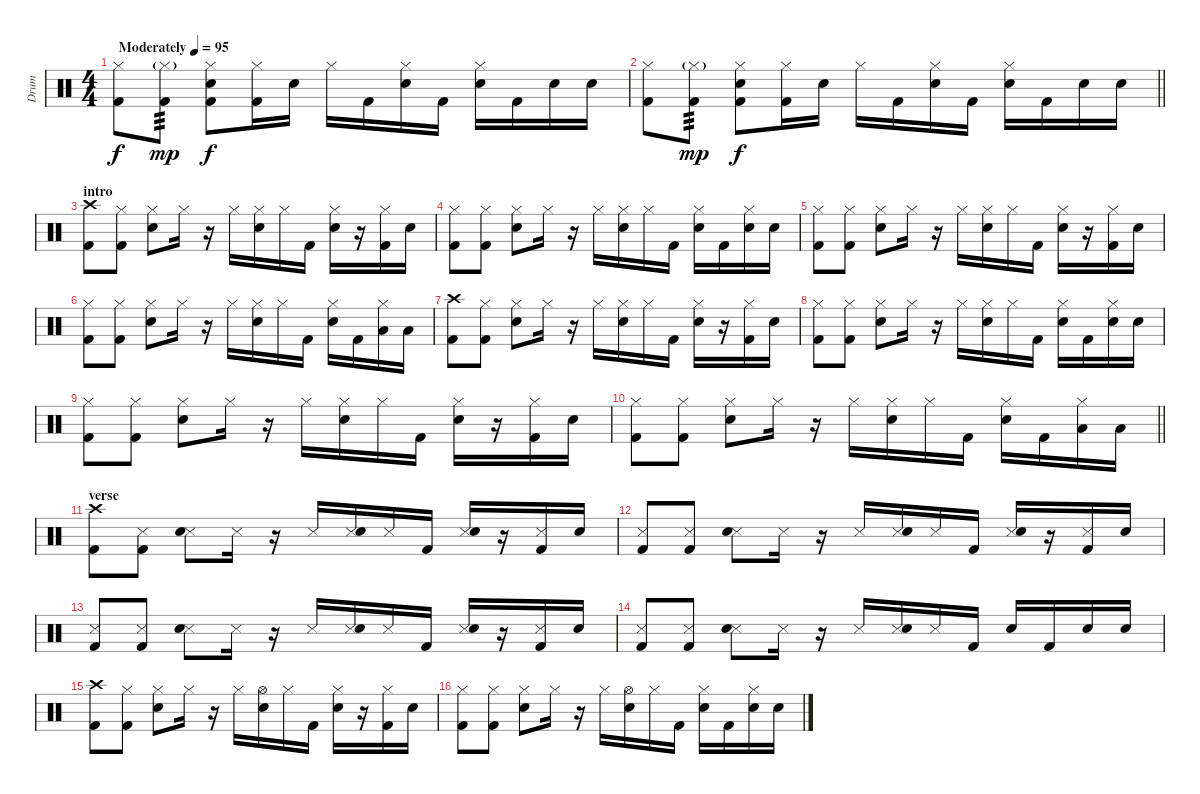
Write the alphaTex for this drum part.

\track ("Drum" "Drum") {instrument percussion}
\staff {score}
\articulation defaults
\ts (4 4)
\tempo (95 "Moderately")
\clef neutral
\ks c
("Hi-Hat (closed)" "Kick (hit) 2").8{dy f} ("Hi-Hat (closed)"{g} "Kick (hit) 2").8{tp 3 dy mp} ("Hi-Hat (closed)" "Snare (hit) 2" "Kick (hit) 2").8{dy f} ("Hi-Hat (closed)" "Kick (hit) 2").16 "Snare (hit) 2".16 "Hi-Hat (closed)".16 "Kick (hit) 2".16 ("Hi-Hat (closed)" "Snare (hit) 2").16 "Kick (hit) 2".16 ("Hi-Hat (closed)" "Snare (hit) 2").16 "Kick (hit) 2".16 "Snare (hit) 2".16 "Snare (hit) 2".16 |
\barLineRight lightlight
("Hi-Hat (closed)" "Kick (hit) 2").8 ("Hi-Hat (closed)"{g} "Kick (hit) 2").8{tp 3 dy mp} ("Hi-Hat (closed)" "Snare (hit) 2" "Kick (hit) 2").8{dy f} ("Hi-Hat (closed)" "Kick (hit) 2").16 "Snare (hit) 2".16 "Hi-Hat (closed)".16 "Kick (hit) 2".16 ("Hi-Hat (closed)" "Snare (hit) 2").16 "Kick (hit) 2".16 ("Hi-Hat (closed)" "Snare (hit) 2").16 "Kick (hit) 2".16 "Snare (hit) 2".16 "Snare (hit) 2".16 |
\section ("" "intro")
("Crash high (hit)" "Kick (hit) 2").8 ("Hi-Hat (closed)" "Kick (hit) 2").8 ("Hi-Hat (closed)" "Snare (hit) 2").8 "Hi-Hat (closed)".16 r.16 "Hi-Hat (closed)".16 ("Hi-Hat (closed)" "Snare (hit) 2").16 "Hi-Hat (closed)".16 "Kick (hit) 2".16 ("Hi-Hat (closed)" "Snare (hit) 2").16 r.16 ("Hi-Hat (closed)" "Kick (hit) 2").16 "Snare (hit) 2".16 |
("Hi-Hat (closed)" "Kick (hit) 2").8 ("Hi-Hat (closed)" "Kick (hit) 2").8 ("Hi-Hat (closed)" "Snare (hit) 2").8 "Hi-Hat (closed)".16 r.16 "Hi-Hat (closed)".16 ("Hi-Hat (closed)" "Snare (hit) 2").16 "Hi-Hat (closed)".16 "Kick (hit) 2".16 ("Hi-Hat (closed)" "Snare (hit) 2").16 "Kick (hit) 2".16 ("Hi-Hat (closed)" "Snare (hit) 2").16 "Snare (hit) 2".16 |
("Hi-Hat (closed)" "Kick (hit) 2").8 ("Hi-Hat (closed)" "Kick (hit) 2").8 ("Hi-Hat (closed)" "Snare (hit) 2").8 "Hi-Hat (closed)".16 r.16 "Hi-Hat (closed)".16 ("Hi-Hat (closed)" "Snare (hit) 2").16 "Hi-Hat (closed)".16 "Kick (hit) 2".16 ("Hi-Hat (closed)" "Snare (hit) 2").16 r.16 ("Hi-Hat (closed)" "Kick (hit) 2").16 "Snare (hit) 2".16 |
("Hi-Hat (closed)" "Kick (hit) 2").8 ("Hi-Hat (closed)" "Kick (hit) 2").8 ("Hi-Hat (closed)" "Snare (hit) 2").8 "Hi-Hat (closed)".16 r.16 "Hi-Hat (closed)".16 ("Hi-Hat (closed)" "Snare (hit) 2").16 "Hi-Hat (closed)".16 "Kick (hit) 2".16 ("Hi-Hat (closed)" "Snare (hit) 2").16 "Kick (hit) 2".16 ("Hi-Hat (closed)" "Low Tom (hit)").16 "Low Tom (hit)".16 |
("Crash high (hit)" "Kick (hit) 2").8 ("Hi-Hat (closed)" "Kick (hit) 2").8 ("Hi-Hat (closed)" "Snare (hit) 2").8 "Hi-Hat (closed)".16 r.16 "Hi-Hat (closed)".16 ("Hi-Hat (closed)" "Snare (hit) 2").16 "Hi-Hat (closed)".16 "Kick (hit) 2".16 ("Hi-Hat (closed)" "Snare (hit) 2").16 r.16 ("Hi-Hat (closed)" "Kick (hit) 2").16 "Snare (hit) 2".16 |
("Hi-Hat (closed)" "Kick (hit) 2").8 ("Hi-Hat (closed)" "Kick (hit) 2").8 ("Hi-Hat (closed)" "Snare (hit) 2").8 "Hi-Hat (closed)".16 r.16 "Hi-Hat (closed)".16 ("Hi-Hat (closed)" "Snare (hit) 2").16 "Hi-Hat (closed)".16 "Kick (hit) 2".16 ("Hi-Hat (closed)" "Snare (hit) 2").16 "Kick (hit) 2".16 ("Hi-Hat (closed)" "Snare (hit) 2").16 "Snare (hit) 2".16 |
("Hi-Hat (closed)" "Kick (hit) 2").8 ("Hi-Hat (closed)" "Kick (hit) 2").8 ("Hi-Hat (closed)" "Snare (hit) 2").8 "Hi-Hat (closed)".16 r.16 "Hi-Hat (closed)".16 ("Hi-Hat (closed)" "Snare (hit) 2").16 "Hi-Hat (closed)".16 "Kick (hit) 2".16 ("Hi-Hat (closed)" "Snare (hit) 2").16 r.16 ("Hi-Hat (closed)" "Kick (hit) 2").16 "Snare (hit) 2".16 |
\barLineRight lightlight
("Hi-Hat (closed)" "Kick (hit) 2").8 ("Hi-Hat (closed)" "Kick (hit) 2").8 ("Hi-Hat (closed)" "Snare (hit) 2").8 "Hi-Hat (closed)".16 r.16 "Hi-Hat (closed)".16 ("Hi-Hat (closed)" "Snare (hit) 2").16 "Hi-Hat (closed)".16 "Kick (hit) 2".16 ("Hi-Hat (closed)" "Snare (hit) 2").16 "Kick (hit) 2".16 ("Hi-Hat (closed)" "Low Tom (hit)").16 "Low Tom (hit)".16 |
\section ("" "verse")
("Crash high (hit)" "Kick (hit) 2").8 ("Snare (side stick) 3" "Kick (hit) 2").8 ("Snare (side stick) 3" "Snare (hit) 2").8 "Snare (side stick) 3".16 r.16 "Snare (side stick) 3".16 ("Snare (side stick) 3" "Snare (hit) 2").16 "Snare (side stick) 3".16 "Kick (hit) 2".16 ("Snare (side stick) 3" "Snare (hit) 2").16 r.16 ("Snare (side stick) 3" "Kick (hit) 2").16 "Snare (hit) 2".16 |
("Snare (side stick) 3" "Kick (hit) 2").8 ("Snare (side stick) 3" "Kick (hit) 2").8 ("Snare (side stick) 3" "Snare (hit) 2").8 "Snare (side stick) 3".16 r.16 "Snare (side stick) 3".16 ("Snare (side stick) 3" "Snare (hit) 2").16 "Snare (side stick) 3".16 "Kick (hit) 2".16 ("Snare (side stick) 3" "Snare (hit) 2").16 r.16 ("Snare (side stick) 3" "Kick (hit) 2").16 "Snare (hit) 2".16 |
("Snare (side stick) 3" "Kick (hit) 2").8 ("Snare (side stick) 3" "Kick (hit) 2").8 ("Snare (side stick) 3" "Snare (hit) 2").8 "Snare (side stick) 3".16 r.16 "Snare (side stick) 3".16 ("Snare (side stick) 3" "Snare (hit) 2").16 "Snare (side stick) 3".16 "Kick (hit) 2".16 ("Snare (side stick) 3" "Snare (hit) 2").16 r.16 ("Snare (side stick) 3" "Kick (hit) 2").16 "Snare (hit) 2".16 |
("Snare (side stick) 3" "Kick (hit) 2").8 ("Snare (side stick) 3" "Kick (hit) 2").8 ("Snare (side stick) 3" "Snare (hit) 2").8 "Snare (side stick) 3".16 r.16 "Snare (side stick) 3".16 ("Snare (side stick) 3" "Snare (hit) 2").16 "Snare (side stick) 3".16 "Kick (hit) 2".16 "Snare (hit) 2".16 "Kick (hit) 2".16 "Snare (hit) 2".16 "Snare (hit) 2".16 |
("Crash high (hit)" "Kick (hit) 2").8 ("Hi-Hat (closed)" "Kick (hit) 2").8 ("Hi-Hat (closed)" "Snare (hit) 2").8 "Hi-Hat (closed)".16 r.16 "Hi-Hat (closed)".16 ("Hi-Hat (open)" "Snare (hit) 2").16 "Hi-Hat (closed)".16 "Kick (hit) 2".16 ("Hi-Hat (closed)" "Snare (hit) 2").16 r.16 ("Hi-Hat (closed)" "Kick (hit) 2").16 "Snare (hit) 2".16 |
("Hi-Hat (closed)" "Kick (hit) 2").8 ("Hi-Hat (closed)" "Kick (hit) 2").8 ("Hi-Hat (closed)" "Snare (hit) 2").8 "Hi-Hat (closed)".16 r.16 "Hi-Hat (closed)".16 ("Hi-Hat (open)" "Snare (hit) 2").16 "Hi-Hat (closed)".16 "Kick (hit) 2".16 ("Hi-Hat (closed)" "Snare (hit) 2").16 "Kick (hit) 2".16 ("Hi-Hat (closed)" "Snare (hit) 2").16 "Snare (hit) 2".16
